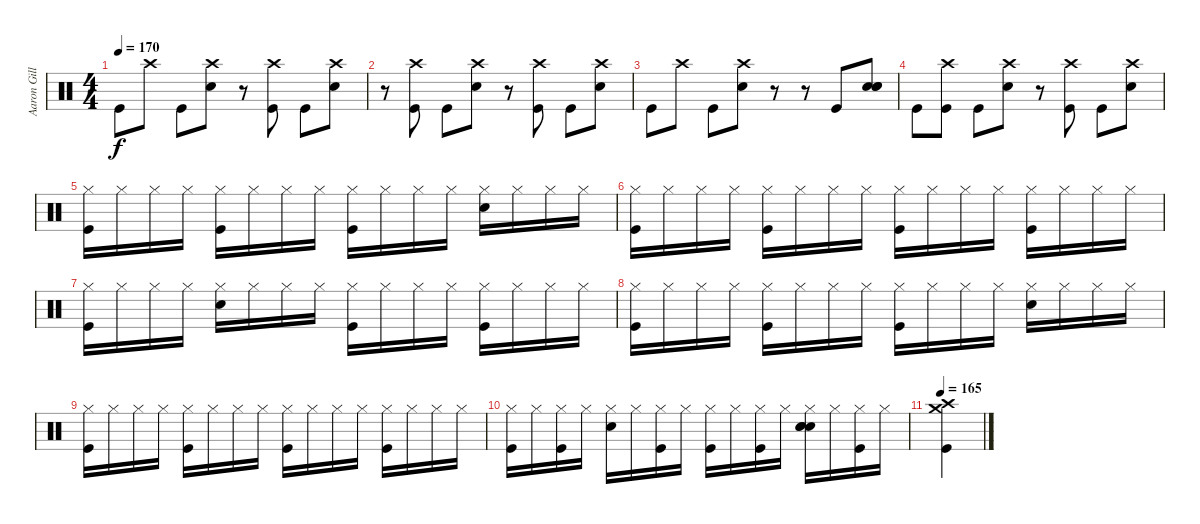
\track ("Aaron Gillepsie (Drums)" "Aaron Gill") {instrument percussion}
\staff {score}
\articulation defaults
\ts (4 4)
\tempo 170
\clef neutral
\ks c "Kick (hit)".8{dy f} "Crash high (hit)".8 "Kick (hit)".8
("Crash high (hit)" "Electric Snare (hit)").8 r.8 ("Crash high (hit)" "Kick (hit)").8 "Kick (hit)".8 ("Crash high (hit)" "Electric Snare (hit)").8 |
r.8 ("Crash high (hit)" "Kick (hit)").8 "Kick (hit)".8 ("Crash high (hit)" "Electric Snare (hit)").8 r.8 ("Crash high (hit)" "Kick (hit)").8 "Kick (hit)".8 ("Crash high (hit)" "Electric Snare (hit)").8 |
"Kick (hit)".8 "Crash high (hit)".8 "Kick (hit)".8 ("Crash high (hit)" "Electric Snare (hit)").8 r.8 r.8 "Kick (hit)".8 ("Electric Snare (hit)" "Electric Snare (hit)" "Electric Snare (hit)").8 |
"Kick (hit)".8 ("Crash high (hit)" "Kick (hit)").8 "Kick (hit)".8 ("Crash high (hit)" "Electric Snare (hit)").8 r.8 ("Crash high (hit)" "Kick (hit)").8 "Kick (hit)".8 ("Crash high (hit)" "Electric Snare (hit)").8 |
("Hi-Hat (closed)" "Kick (hit)").16 "Hi-Hat (closed)".16 "Hi-Hat (closed)".16 "Hi-Hat (closed)".16 ("Hi-Hat (closed)" "Kick (hit)").16 "Hi-Hat (closed)".16 "Hi-Hat (closed)".16 "Hi-Hat (closed)".16 ("Hi-Hat (closed)" "Kick (hit)").16 "Hi-Hat (closed)".16 "Hi-Hat (closed)".16 "Hi-Hat (closed)".16 ("Hi-Hat (closed)" "Electric Snare (hit)").16 "Hi-Hat (closed)".16 "Hi-Hat (closed)".16 "Hi-Hat (closed)".16 |
("Hi-Hat (closed)" "Kick (hit)").16 "Hi-Hat (closed)".16 "Hi-Hat (closed)".16 "Hi-Hat (closed)".16 ("Hi-Hat (closed)" "Kick (hit)").16 "Hi-Hat (closed)".16 "Hi-Hat (closed)".16 "Hi-Hat (closed)".16 ("Hi-Hat (closed)" "Kick (hit)").16 "Hi-Hat (closed)".16 "Hi-Hat (closed)".16 "Hi-Hat (closed)".16 ("Hi-Hat (closed)" "Kick (hit)").16 "Hi-Hat (closed)".16 "Hi-Hat (closed)".16 "Hi-Hat (closed)".16 |
("Hi-Hat (closed)" "Kick (hit)").16 "Hi-Hat (closed)".16 "Hi-Hat (closed)".16 "Hi-Hat (closed)".16 ("Hi-Hat (closed)" "Electric Snare (hit)").16 "Hi-Hat (closed)".16 "Hi-Hat (closed)".16 "Hi-Hat (closed)".16 ("Hi-Hat (closed)" "Kick (hit)").16 "Hi-Hat (closed)".16 "Hi-Hat (closed)".16 "Hi-Hat (closed)".16 ("Hi-Hat (closed)" "Kick (hit)").16 "Hi-Hat (closed)".16 "Hi-Hat (closed)".16 "Hi-Hat (closed)".16 |
("Hi-Hat (closed)" "Kick (hit)").16 "Hi-Hat (closed)".16 "Hi-Hat (closed)".16 "Hi-Hat (closed)".16 ("Hi-Hat (closed)" "Kick (hit)").16 "Hi-Hat (closed)".16 "Hi-Hat (closed)".16 "Hi-Hat (closed)".16 ("Hi-Hat (closed)" "Kick (hit)").16 "Hi-Hat (closed)".16 "Hi-Hat (closed)".16 "Hi-Hat (closed)".16 ("Hi-Hat (closed)" "Electric Snare (hit)").16 "Hi-Hat (closed)".16 "Hi-Hat (closed)".16 "Hi-Hat (closed)".16 |
("Hi-Hat (closed)" "Kick (hit)").16 "Hi-Hat (closed)".16 "Hi-Hat (closed)".16 "Hi-Hat (closed)".16 ("Hi-Hat (closed)" "Kick (hit)").16 "Hi-Hat (closed)".16 "Hi-Hat (closed)".16 "Hi-Hat (closed)".16 ("Hi-Hat (closed)" "Kick (hit)").16 "Hi-Hat (closed)".16 "Hi-Hat (closed)".16 "Hi-Hat (closed)".16 ("Hi-Hat (closed)" "Kick (hit)").16 "Hi-Hat (closed)".16 "Hi-Hat (closed)".16 "Hi-Hat (closed)".16 |
("Hi-Hat (closed)" "Kick (hit)").16 "Hi-Hat (closed)".16 ("Hi-Hat (closed)" "Kick (hit)").16 "Hi-Hat (closed)".16 ("Hi-Hat (closed)" "Electric Snare (hit)").16 "Hi-Hat (closed)".16 ("Hi-Hat (closed)" "Kick (hit)").16 "Hi-Hat (closed)".16 ("Hi-Hat (closed)" "Kick (hit)").16 "Hi-Hat (closed)".16 ("Hi-Hat (closed)" "Kick (hit)").16 "Hi-Hat (closed)".16 ("Hi-Hat (closed)" "Electric Snare (hit)" "Electric Snare (hit)" "Electric Snare (hit)").16 "Hi-Hat (closed)".16 ("Hi-Hat (closed)" "Kick (hit)").16 "Hi-Hat (closed)".16 |
\tempo 165
("Crash medium (hit)" "Crash high (hit)" "Kick (hit)").4
